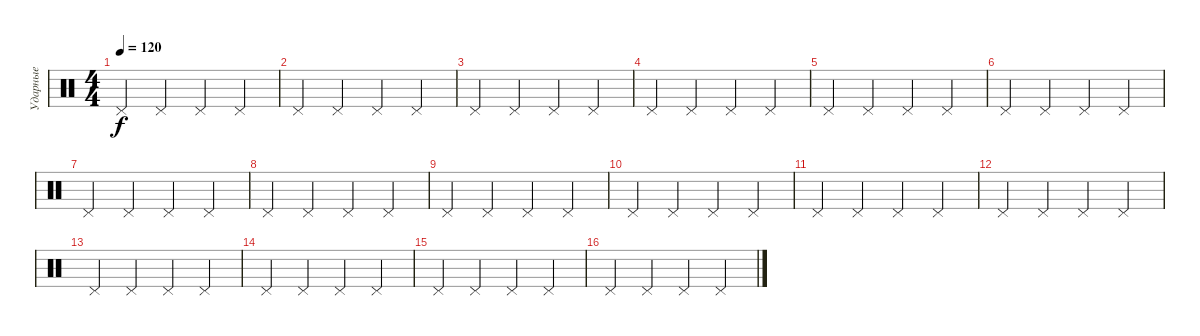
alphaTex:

\track ("Ударные" "Ударные") {instrument percussion}
\staff {score}
\articulation defaults
\ts (4 4)
\tempo 120
\clef neutral
\ks c "Pedal Hi-Hat (hit)".4{dy f} "Pedal Hi-Hat (hit)".4 "Pedal Hi-Hat (hit)".4 "Pedal Hi-Hat (hit)".4
|
"Pedal Hi-Hat (hit)".4 "Pedal Hi-Hat (hit)".4 "Pedal Hi-Hat (hit)".4 "Pedal Hi-Hat (hit)".4 |
"Pedal Hi-Hat (hit)".4 "Pedal Hi-Hat (hit)".4 "Pedal Hi-Hat (hit)".4 "Pedal Hi-Hat (hit)".4 |
"Pedal Hi-Hat (hit)".4 "Pedal Hi-Hat (hit)".4 "Pedal Hi-Hat (hit)".4 "Pedal Hi-Hat (hit)".4 |
"Pedal Hi-Hat (hit)".4 "Pedal Hi-Hat (hit)".4 "Pedal Hi-Hat (hit)".4 "Pedal Hi-Hat (hit)".4 |
"Pedal Hi-Hat (hit)".4 "Pedal Hi-Hat (hit)".4 "Pedal Hi-Hat (hit)".4 "Pedal Hi-Hat (hit)".4 |
"Pedal Hi-Hat (hit)".4 "Pedal Hi-Hat (hit)".4 "Pedal Hi-Hat (hit)".4 "Pedal Hi-Hat (hit)".4 |
"Pedal Hi-Hat (hit)".4 "Pedal Hi-Hat (hit)".4 "Pedal Hi-Hat (hit)".4 "Pedal Hi-Hat (hit)".4 |
"Pedal Hi-Hat (hit)".4 "Pedal Hi-Hat (hit)".4 "Pedal Hi-Hat (hit)".4 "Pedal Hi-Hat (hit)".4 |
"Pedal Hi-Hat (hit)".4 "Pedal Hi-Hat (hit)".4 "Pedal Hi-Hat (hit)".4 "Pedal Hi-Hat (hit)".4 |
"Pedal Hi-Hat (hit)".4 "Pedal Hi-Hat (hit)".4 "Pedal Hi-Hat (hit)".4 "Pedal Hi-Hat (hit)".4 |
"Pedal Hi-Hat (hit)".4 "Pedal Hi-Hat (hit)".4 "Pedal Hi-Hat (hit)".4 "Pedal Hi-Hat (hit)".4 |
"Pedal Hi-Hat (hit)".4 "Pedal Hi-Hat (hit)".4 "Pedal Hi-Hat (hit)".4 "Pedal Hi-Hat (hit)".4 |
"Pedal Hi-Hat (hit)".4 "Pedal Hi-Hat (hit)".4 "Pedal Hi-Hat (hit)".4 "Pedal Hi-Hat (hit)".4 |
"Pedal Hi-Hat (hit)".4 "Pedal Hi-Hat (hit)".4 "Pedal Hi-Hat (hit)".4 "Pedal Hi-Hat (hit)".4 |
"Pedal Hi-Hat (hit)".4 "Pedal Hi-Hat (hit)".4 "Pedal Hi-Hat (hit)".4 "Pedal Hi-Hat (hit)".4
